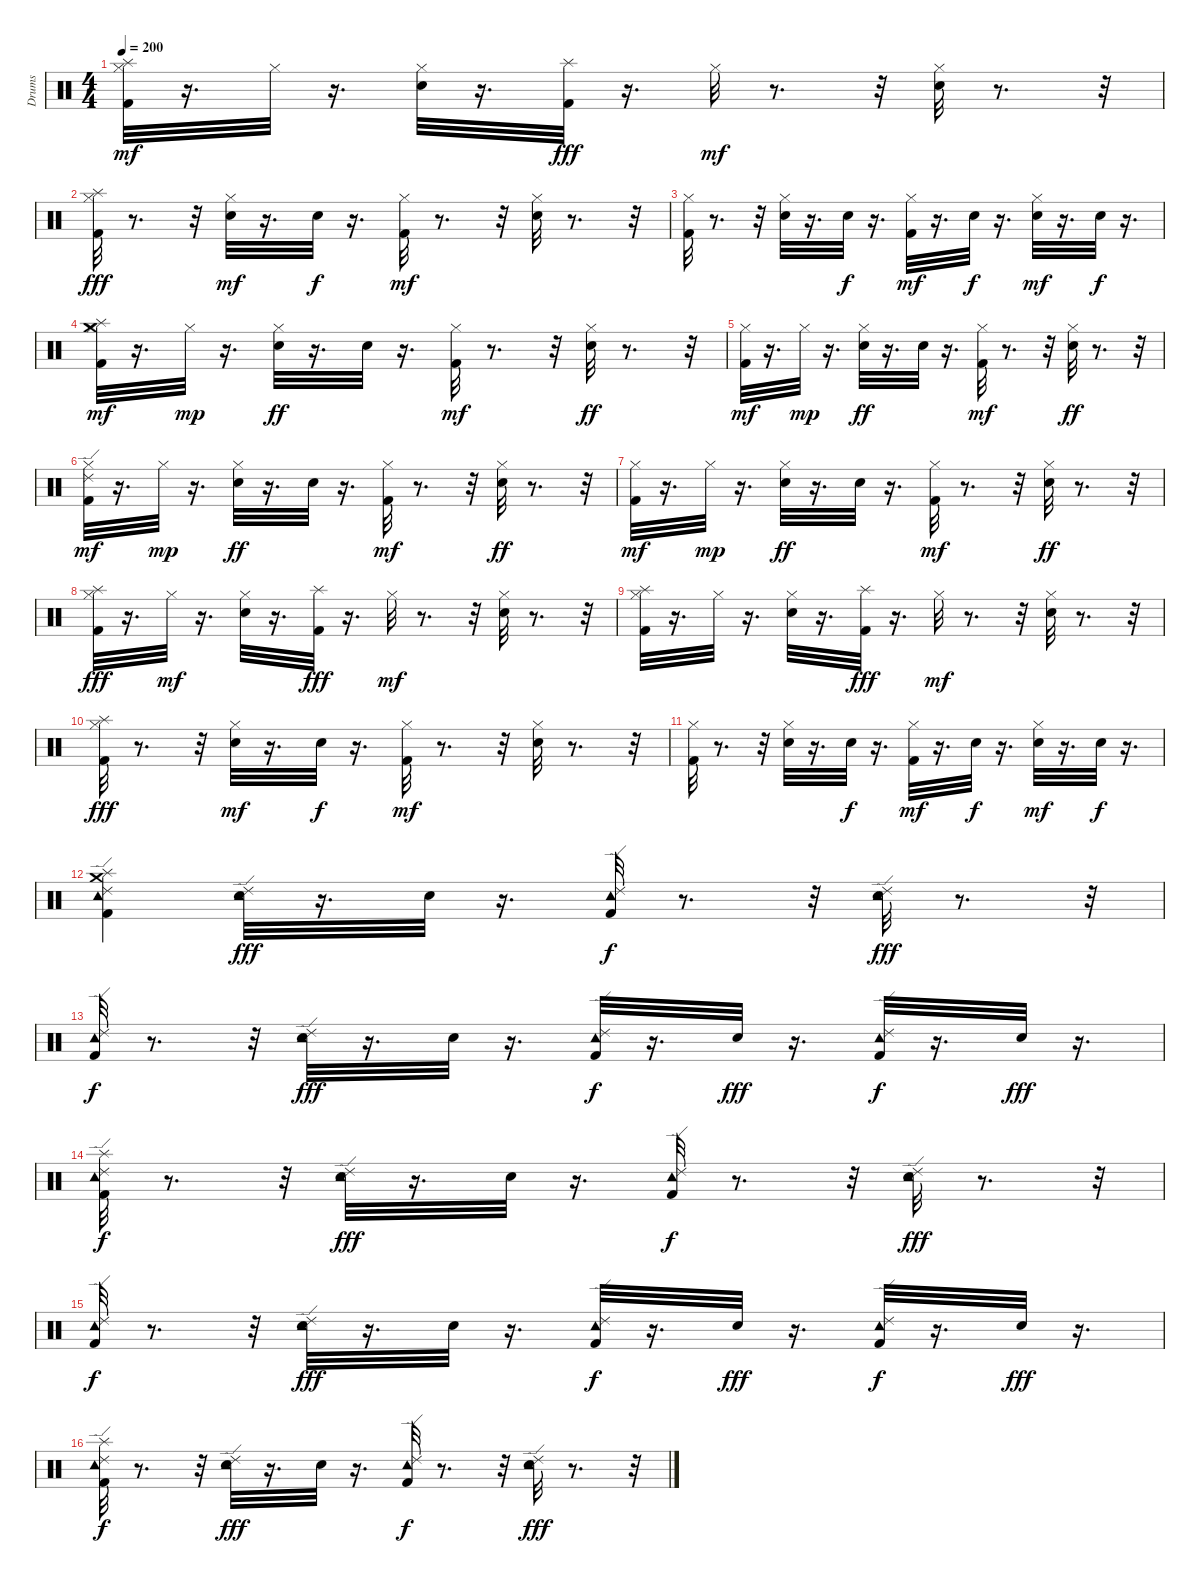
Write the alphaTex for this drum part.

\track ("Drums" "Drums") {instrument percussion}
\staff {score}
\articulation defaults
\ts (4 4)
\tempo 200
\clef neutral
\ks c
("Splash (hit)" "Hi-Hat (closed)" "Kick (hit) 2").32{dy mf} r.16{d} "Hi-Hat (closed)".32 r.16{d} ("Hi-Hat (closed)" "Electric Snare (hit)").32 r.16{d} ("Splash (hit)" "Kick (hit) 2").32{dy fff} r.16{d} "Hi-Hat (closed)".32{dy mf} r.8{d} r.32 ("Hi-Hat (closed)" "Electric Snare (hit)").32 r.8{d} r.32 |
("Hi-Hat (closed)" "Splash (hit)" "Kick (hit) 2").32{dy fff} r.8{d} r.32 ("Hi-Hat (closed)" "Electric Snare (hit)").32{dy mf} r.16{d} "Electric Snare (hit)".32{dy f} r.16{d} ("Hi-Hat (closed)" "Kick (hit) 2").32{dy mf} r.8{d} r.32 ("Hi-Hat (closed)" "Electric Snare (hit)").32 r.8{d} r.32 |
("Hi-Hat (closed)" "Kick (hit) 2").32 r.8{d} r.32 ("Hi-Hat (closed)" "Electric Snare (hit)").32 r.16{d} "Electric Snare (hit)".32{dy f} r.16{d} ("Hi-Hat (closed)" "Kick (hit) 2").32{dy mf} r.16{d} "Electric Snare (hit)".32{dy f} r.16{d} ("Hi-Hat (closed)" "Electric Snare (hit)").32{dy mf} r.16{d} "Electric Snare (hit)".32{dy f} r.16{d} |
("Hi-Hat (closed)" "Splash (hit)" "Crash medium (hit)" "Kick (hit) 2").32{dy mf} r.16{d} "Hi-Hat (closed)".32{dy mp} r.16{d} ("Hi-Hat (closed)" "Electric Snare (hit)").32{dy ff} r.16{d} "Electric Snare (hit)".32 r.16{d} ("Hi-Hat (closed)" "Kick (hit) 2").32{dy mf} r.8{d} r.32 ("Hi-Hat (closed)" "Electric Snare (hit)").32{dy ff} r.8{d} r.32 |
("Hi-Hat (closed)" "Kick (hit) 2").32{dy mf} r.16{d} "Hi-Hat (closed)".32{dy mp} r.16{d} ("Hi-Hat (closed)" "Electric Snare (hit)").32{dy ff} r.16{d} "Electric Snare (hit)".32 r.16{d} ("Hi-Hat (closed)" "Kick (hit) 2").32{dy mf} r.8{d} r.32 ("Hi-Hat (closed)" "Electric Snare (hit)").32{dy ff} r.8{d} r.32 |
("Ride (edge) 2" "Hi-Hat (closed)" "Kick (hit) 2").32{dy mf} r.16{d} "Hi-Hat (closed)".32{dy mp} r.16{d} ("Hi-Hat (closed)" "Electric Snare (hit)").32{dy ff} r.16{d} "Electric Snare (hit)".32 r.16{d} ("Hi-Hat (closed)" "Kick (hit) 2").32{dy mf} r.8{d} r.32 ("Hi-Hat (closed)" "Electric Snare (hit)").32{dy ff} r.8{d} r.32 |
("Hi-Hat (closed)" "Kick (hit) 2").32{dy mf} r.16{d} "Hi-Hat (closed)".32{dy mp} r.16{d} ("Hi-Hat (closed)" "Electric Snare (hit)").32{dy ff} r.16{d} "Electric Snare (hit)".32 r.16{d} ("Hi-Hat (closed)" "Kick (hit) 2").32{dy mf} r.8{d} r.32 ("Hi-Hat (closed)" "Electric Snare (hit)").32{dy ff} r.8{d} r.32 |
("Hi-Hat (closed)" "Kick (hit) 2" "Splash (hit)").32{dy fff} r.16{d} "Hi-Hat (closed)".32{dy mf} r.16{d} ("Hi-Hat (closed)" "Electric Snare (hit)").32 r.16{d} ("Splash (hit)" "Kick (hit) 2").32{dy fff} r.16{d} "Hi-Hat (closed)".32{dy mf} r.8{d} r.32 ("Hi-Hat (closed)" "Electric Snare (hit)").32 r.8{d} r.32 |
("Splash (hit)" "Hi-Hat (closed)" "Kick (hit) 2").32 r.16{d} "Hi-Hat (closed)".32 r.16{d} ("Hi-Hat (closed)" "Electric Snare (hit)").32 r.16{d} ("Splash (hit)" "Kick (hit) 2").32{dy fff} r.16{d} "Hi-Hat (closed)".32{dy mf} r.8{d} r.32 ("Hi-Hat (closed)" "Electric Snare (hit)").32 r.8{d} r.32 |
("Hi-Hat (closed)" "Splash (hit)" "Kick (hit) 2").32{dy fff} r.8{d} r.32 ("Hi-Hat (closed)" "Electric Snare (hit)").32{dy mf} r.16{d} "Electric Snare (hit)".32{dy f} r.16{d} ("Hi-Hat (closed)" "Kick (hit) 2").32{dy mf} r.8{d} r.32 ("Hi-Hat (closed)" "Electric Snare (hit)").32 r.8{d} r.32 |
("Hi-Hat (closed)" "Kick (hit) 2").32 r.8{d} r.32 ("Hi-Hat (closed)" "Electric Snare (hit)").32 r.16{d} "Electric Snare (hit)".32{dy f} r.16{d} ("Hi-Hat (closed)" "Kick (hit) 2").32{dy mf} r.16{d} "Electric Snare (hit)".32{dy f} r.16{d} ("Hi-Hat (closed)" "Electric Snare (hit)").32{dy mf} r.16{d} "Electric Snare (hit)".32{dy f} r.16{d} |
("Ride (edge) 2" "Tambourine (hit)" "Kick (hit) 2" "Splash (hit)" "Crash medium (hit)").4 ("Ride (edge) 2" "Tambourine (hit)" "Electric Snare (hit)").32{dy fff} r.16{d} "Electric Snare (hit)".32 r.16{d} ("Ride (edge) 2" "Tambourine (hit)" "Kick (hit) 2").32{dy f} r.8{d} r.32 ("Ride (edge) 2" "Tambourine (hit)" "Electric Snare (hit)").32{dy fff} r.8{d} r.32 |
("Ride (edge) 2" "Tambourine (hit)" "Kick (hit) 2").32{dy f} r.8{d} r.32 ("Ride (edge) 2" "Tambourine (hit)" "Electric Snare (hit)").32{dy fff} r.16{d} "Electric Snare (hit)".32 r.16{d} ("Ride (edge) 2" "Tambourine (hit)" "Kick (hit) 2").32{dy f} r.16{d} "Electric Snare (hit)".32{dy fff} r.16{d} ("Ride (edge) 2" "Tambourine (hit)" "Kick (hit) 2").32{dy f} r.16{d} "Electric Snare (hit)".32{dy fff} r.16{d} |
("Ride (edge) 2" "Tambourine (hit)" "Kick (hit) 2" "Splash (hit)").32{dy f} r.8{d} r.32 ("Ride (edge) 2" "Tambourine (hit)" "Electric Snare (hit)").32{dy fff} r.16{d} "Electric Snare (hit)".32 r.16{d} ("Ride (edge) 2" "Tambourine (hit)" "Kick (hit) 2").32{dy f} r.8{d} r.32 ("Ride (edge) 2" "Tambourine (hit)" "Electric Snare (hit)").32{dy fff} r.8{d} r.32 |
("Ride (edge) 2" "Tambourine (hit)" "Kick (hit) 2").32{dy f} r.8{d} r.32 ("Ride (edge) 2" "Tambourine (hit)" "Electric Snare (hit)").32{dy fff} r.16{d} "Electric Snare (hit)".32 r.16{d} ("Ride (edge) 2" "Tambourine (hit)" "Kick (hit) 2").32{dy f} r.16{d} "Electric Snare (hit)".32{dy fff} r.16{d} ("Ride (edge) 2" "Tambourine (hit)" "Kick (hit) 2").32{dy f} r.16{d} "Electric Snare (hit)".32{dy fff} r.16{d} |
("Ride (edge) 2" "Tambourine (hit)" "Kick (hit) 2" "Splash (hit)").32{dy f} r.8{d} r.32 ("Ride (edge) 2" "Tambourine (hit)" "Electric Snare (hit)").32{dy fff} r.16{d} "Electric Snare (hit)".32 r.16{d} ("Ride (edge) 2" "Tambourine (hit)" "Kick (hit) 2").32{dy f} r.8{d} r.32 ("Ride (edge) 2" "Tambourine (hit)" "Electric Snare (hit)").32{dy fff} r.8{d} r.32
